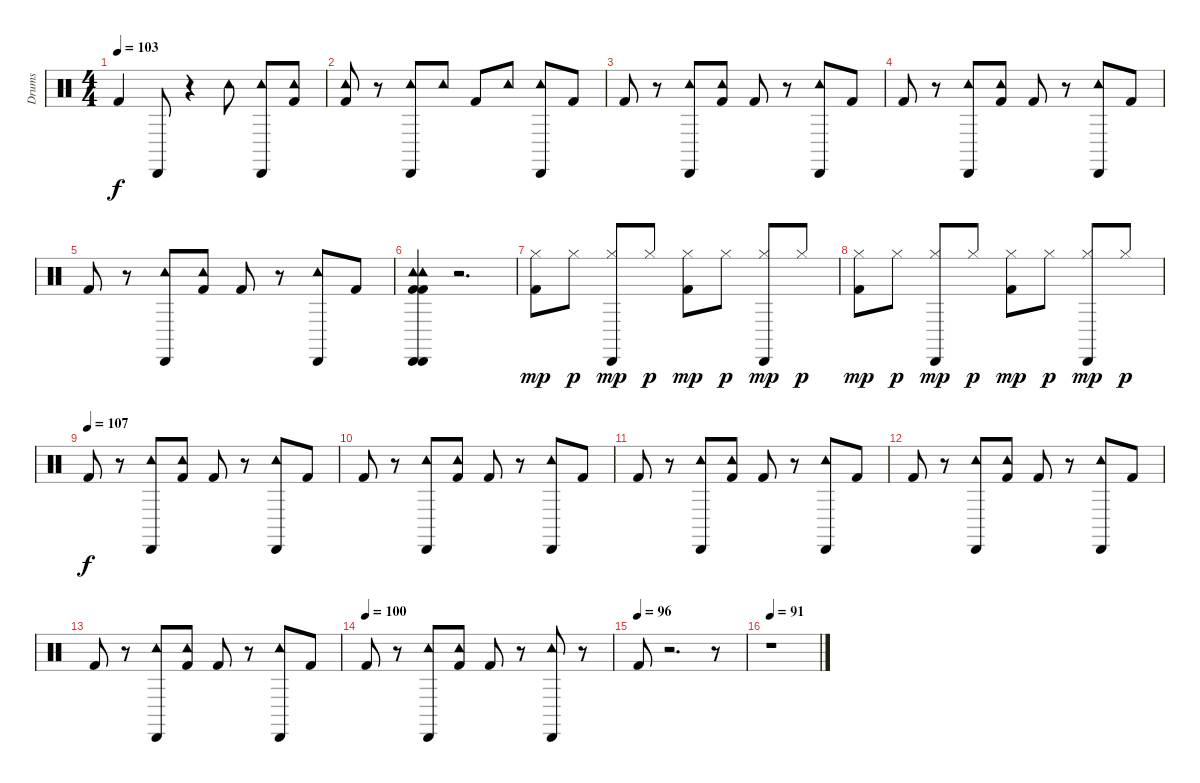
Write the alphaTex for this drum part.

\track ("Drums" "Drums") {instrument percussion}
\staff {score}
\articulation defaults
\ts (4 4)
\tempo 103
\clef neutral
\ks c "Kick (hit) 2".4{dy f} "Cabasa (hit)".8
r.4 "Tambourine (hit)".8 ("Cabasa (hit)" "Tambourine (hit)").8 ("Kick (hit) 2" "Tambourine (hit)").8 |
("Kick (hit) 2" "Tambourine (hit)").8 r.8 ("Cabasa (hit)" "Tambourine (hit)").8 "Tambourine (hit)".8 "Kick (hit) 2".8 "Tambourine (hit)".8 ("Cabasa (hit)" "Tambourine (hit)").8 "Kick (hit) 2".8 |
"Kick (hit) 2".8 r.8 ("Tambourine (hit)" "Cabasa (hit)").8 ("Tambourine (hit)" "Kick (hit) 2").8 "Kick (hit) 2".8 r.8 ("Tambourine (hit)" "Cabasa (hit)").8 "Kick (hit) 2".8 |
"Kick (hit) 2".8 r.8 ("Tambourine (hit)" "Cabasa (hit)").8 ("Tambourine (hit)" "Kick (hit) 2").8 "Kick (hit) 2".8 r.8 ("Tambourine (hit)" "Cabasa (hit)").8 "Kick (hit) 2".8 |
"Kick (hit) 2".8 r.8 ("Tambourine (hit)" "Cabasa (hit)").8 ("Tambourine (hit)" "Kick (hit) 2").8 "Kick (hit) 2".8 r.8 ("Tambourine (hit)" "Cabasa (hit)").8 "Kick (hit) 2".8 |
("Cabasa (hit)" "Tambourine (hit)" "Kick (hit) 2" "Cabasa (hit)" "Kick (hit) 2" "Tambourine (hit)").4 r.2{d} |
("Hi-Hat (closed)" "Kick (hit) 2").8{dy mp} "Hi-Hat (closed)".8{dy p} ("Cabasa (hit)" "Hi-Hat (closed)").8{dy mp} "Hi-Hat (closed)".8{dy p} ("Kick (hit) 2" "Hi-Hat (closed)").8{dy mp} "Hi-Hat (closed)".8{dy p} ("Cabasa (hit)" "Hi-Hat (closed)").8{dy mp} "Hi-Hat (closed)".8{dy p} |
("Kick (hit) 2" "Hi-Hat (closed)").8{dy mp} "Hi-Hat (closed)".8{dy p} ("Cabasa (hit)" "Hi-Hat (closed)").8{dy mp} "Hi-Hat (closed)".8{dy p} ("Kick (hit) 2" "Hi-Hat (closed)").8{dy mp} "Hi-Hat (closed)".8{dy p} ("Cabasa (hit)" "Hi-Hat (closed)").8{dy mp} "Hi-Hat (closed)".8{dy p} |
\tempo (107)
"Kick (hit) 2".8{dy f} r.8 ("Tambourine (hit)" "Cabasa (hit)").8 ("Tambourine (hit)" "Kick (hit) 2").8 "Kick (hit) 2".8 r.8 ("Tambourine (hit)" "Cabasa (hit)").8 "Kick (hit) 2".8 |
"Kick (hit) 2".8 r.8 ("Tambourine (hit)" "Cabasa (hit)").8 ("Tambourine (hit)" "Kick (hit) 2").8 "Kick (hit) 2".8 r.8 ("Tambourine (hit)" "Cabasa (hit)").8 "Kick (hit) 2".8 |
"Kick (hit) 2".8 r.8 ("Tambourine (hit)" "Cabasa (hit)").8 ("Tambourine (hit)" "Kick (hit) 2").8 "Kick (hit) 2".8 r.8 ("Tambourine (hit)" "Cabasa (hit)").8 "Kick (hit) 2".8 |
"Kick (hit) 2".8 r.8 ("Tambourine (hit)" "Cabasa (hit)").8 ("Tambourine (hit)" "Kick (hit) 2").8 "Kick (hit) 2".8 r.8 ("Tambourine (hit)" "Cabasa (hit)").8 "Kick (hit) 2".8 |
"Kick (hit) 2".8 r.8 ("Tambourine (hit)" "Cabasa (hit)").8 ("Tambourine (hit)" "Kick (hit) 2").8 "Kick (hit) 2".8 r.8 ("Tambourine (hit)" "Cabasa (hit)").8 "Kick (hit) 2".8 |
\tempo (100)
"Kick (hit) 2".8 r.8 ("Tambourine (hit)" "Cabasa (hit)").8 ("Tambourine (hit)" "Kick (hit) 2").8 "Kick (hit) 2".8 r.8 ("Tambourine (hit)" "Cabasa (hit)").8 r.8 |
\tempo (96)
"Kick (hit) 2".8 r.2{d} r.8 |
\tempo 91
r.1
